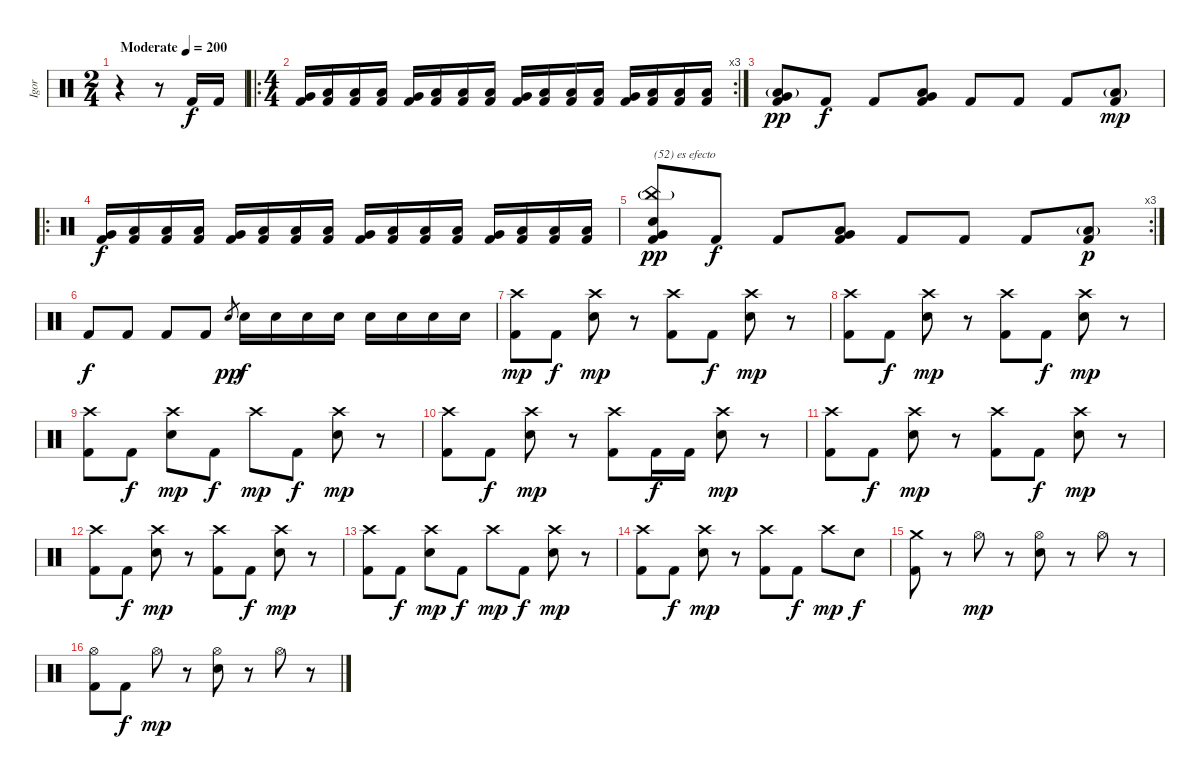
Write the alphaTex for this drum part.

\track ("Igor" "Igor") {instrument percussion}
\staff {score}
\articulation defaults
\ts (2 4)
\tempo (200 "Moderate")
\clef neutral
\ks c
r.4{dy f} r.8 "Kick (hit) 2".16 "Kick (hit) 2".16 |
\ro
\rc 3
\ts (4 4)
("Very Low Tom (hit)" "Kick (hit) 2").16 ("Low Floor Tom (hit)" "Kick (hit) 2").16 ("Low Floor Tom (hit)" "Kick (hit) 2").16 ("Low Floor Tom (hit)" "Kick (hit) 2").16 ("Very Low Tom (hit)" "Kick (hit) 2").16 ("Low Floor Tom (hit)" "Kick (hit) 2").16 ("Low Floor Tom (hit)" "Kick (hit) 2").16 ("Low Floor Tom (hit)" "Kick (hit) 2").16 ("Very Low Tom (hit)" "Kick (hit) 2").16 ("Low Floor Tom (hit)" "Kick (hit) 2").16 ("Low Floor Tom (hit)" "Kick (hit) 2").16 ("Low Floor Tom (hit)" "Kick (hit) 2").16 ("Very Low Tom (hit)" "Kick (hit) 2").16 ("Low Floor Tom (hit)" "Kick (hit) 2").16 ("Low Floor Tom (hit)" "Kick (hit) 2").16 ("Low Floor Tom (hit)" "Kick (hit) 2").16 |
("Very Low Tom (hit)" "Low Floor Tom (hit)"{g} "Kick (hit) 2").8{bd 60 dy pp} "Kick (hit) 2".8{dy f} "Kick (hit) 2".8 ("Very Low Tom (hit)" "Low Floor Tom (hit)" "Kick (hit) 2").8{bd 60} "Kick (hit) 2".8 "Kick (hit) 2".8 "Kick (hit) 2".8 ("Low Floor Tom (hit)"{g} "Kick (hit) 2").8{dy mp} |
\ro
("Very Low Tom (hit)" "Kick (hit) 2").16{dy f} ("Low Floor Tom (hit)" "Kick (hit) 2").16 ("Low Floor Tom (hit)" "Kick (hit) 2").16 ("Low Floor Tom (hit)" "Kick (hit) 2").16 ("Very Low Tom (hit)" "Kick (hit) 2").16 ("Low Floor Tom (hit)" "Kick (hit) 2").16 ("Low Floor Tom (hit)" "Kick (hit) 2").16 ("Low Floor Tom (hit)" "Kick (hit) 2").16 ("Very Low Tom (hit)" "Kick (hit) 2").16 ("Low Floor Tom (hit)" "Kick (hit) 2").16 ("Low Floor Tom (hit)" "Kick (hit) 2").16 ("Low Floor Tom (hit)" "Kick (hit) 2").16 ("Very Low Tom (hit)" "Kick (hit) 2").16 ("Low Floor Tom (hit)" "Kick (hit) 2").16 ("Low Floor Tom (hit)" "Kick (hit) 2").16 ("Low Floor Tom (hit)" "Kick (hit) 2").16 |
\rc 3
("China (hit)"{g} "Electric Snare (hit)" "Very Low Tom (hit)" "Kick (hit) 2").8{bd 60 txt "(52) es efecto" dy pp} "Kick (hit) 2".8{dy f} "Kick (hit) 2".8 ("Very Low Tom (hit)" "Low Floor Tom (hit)" "Kick (hit) 2").8{bd 60} "Kick (hit) 2".8 "Kick (hit) 2".8 "Kick (hit) 2".8 ("Low Floor Tom (hit)"{g} "Kick (hit) 2").8{bd 60 dy p} |
"Kick (hit) 2".8{dy f} "Kick (hit) 2".8 "Kick (hit) 2".8 "Kick (hit) 2".8 "Electric Snare (hit)".8{gr dy pp} "Electric Snare (hit)".16{dy f} "Electric Snare (hit)".16 "Electric Snare (hit)".16 "Electric Snare (hit)".16 "Electric Snare (hit)".16 "Electric Snare (hit)".16 "Electric Snare (hit)".16 "Electric Snare (hit)".16 |
("Crash high (hit)" "Kick (hit) 2").8{dy mp} "Kick (hit) 2".8{dy f} ("Crash high (hit)" "Electric Snare (hit)").8{dy mp} r.8 ("Crash high (hit)" "Kick (hit) 2").8 "Kick (hit) 2".8{dy f} ("Crash high (hit)" "Electric Snare (hit)").8{dy mp} r.8 |
("Crash high (hit)" "Kick (hit) 2").8 "Kick (hit) 2".8{dy f} ("Crash high (hit)" "Electric Snare (hit)").8{dy mp} r.8 ("Crash high (hit)" "Kick (hit) 2").8 "Kick (hit) 2".8{dy f} ("Crash high (hit)" "Electric Snare (hit)").8{dy mp} r.8 |
("Crash high (hit)" "Kick (hit) 2").8 "Kick (hit) 2".8{dy f} ("Crash high (hit)" "Electric Snare (hit)").8{dy mp} "Kick (hit) 2".8{dy f} "Crash high (hit)".8{dy mp} "Kick (hit) 2".8{dy f} ("Crash high (hit)" "Electric Snare (hit)").8{dy mp} r.8 |
("Crash high (hit)" "Kick (hit) 2").8 "Kick (hit) 2".8{dy f} ("Crash high (hit)" "Electric Snare (hit)").8{dy mp} r.8 ("Crash high (hit)" "Kick (hit) 2").8 "Kick (hit) 2".16{dy f} "Kick (hit) 2".16 ("Crash high (hit)" "Electric Snare (hit)").8{dy mp} r.8 |
("Crash high (hit)" "Kick (hit) 2").8 "Kick (hit) 2".8{dy f} ("Crash high (hit)" "Electric Snare (hit)").8{dy mp} r.8 ("Crash high (hit)" "Kick (hit) 2").8 "Kick (hit) 2".8{dy f} ("Crash high (hit)" "Electric Snare (hit)").8{dy mp} r.8 |
("Crash high (hit)" "Kick (hit) 2").8 "Kick (hit) 2".8{dy f} ("Crash high (hit)" "Electric Snare (hit)").8{dy mp} r.8 ("Crash high (hit)" "Kick (hit) 2").8 "Kick (hit) 2".8{dy f} ("Crash high (hit)" "Electric Snare (hit)").8{dy mp} r.8 |
("Crash high (hit)" "Kick (hit) 2").8 "Kick (hit) 2".8{dy f} ("Crash high (hit)" "Electric Snare (hit)").8{dy mp} "Kick (hit) 2".8{dy f} "Crash high (hit)".8{dy mp} "Kick (hit) 2".8{dy f} ("Crash high (hit)" "Electric Snare (hit)").8{dy mp} r.8 |
("Crash high (hit)" "Kick (hit) 2").8 "Kick (hit) 2".8{dy f} ("Crash high (hit)" "Electric Snare (hit)").8{dy mp} r.8 ("Crash high (hit)" "Kick (hit) 2").8 "Kick (hit) 2".8{dy f} "Crash high (hit)".8{dy mp} "Electric Snare (hit)".8{dy f} |
("Crash medium (hit)" "Kick (hit) 2").8 r.8 "Hi-Hat (open)".8{dy mp} r.8 ("Hi-Hat (open)" "Electric Snare (hit)").8 r.8 "Hi-Hat (open)".8 r.8 |
("Hi-Hat (open)" "Kick (hit) 2").8 "Kick (hit) 2".8{dy f} "Hi-Hat (open)".8{dy mp} r.8 ("Hi-Hat (open)" "Electric Snare (hit)").8 r.8 "Hi-Hat (open)".8 r.8
